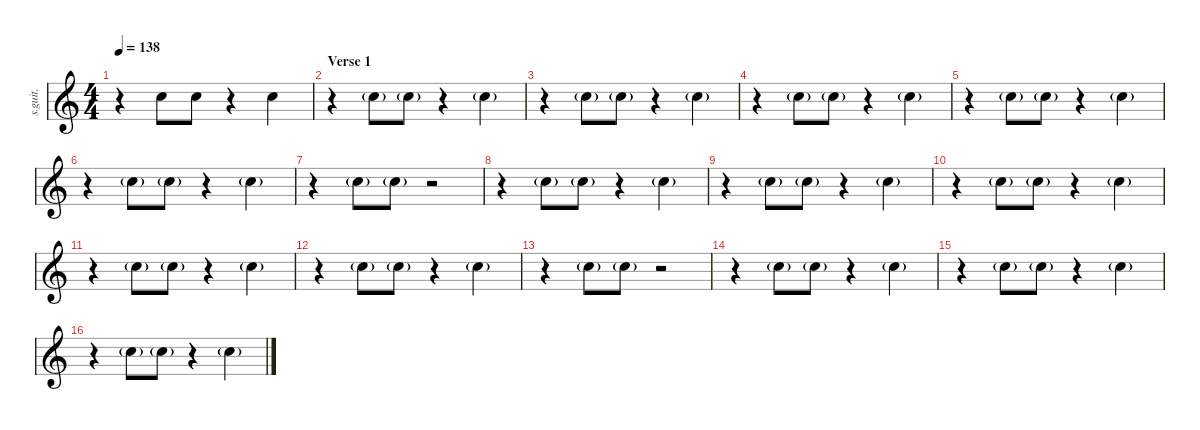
\defaultSystemsLayout 4
\hideDynamics
\bracketExtendMode nobrackets
\track ("Hand Claps" "s.guit.") {instrument percussion}
\staff {score}
\articulation defaults
\ts (4 4)
\tempo 138
\clef g2
\ks c
r.4{dy fff} "Hand Clap (hit)".8 "Hand Clap (hit)".8 r.4 "Hand Clap (hit)".4 |
\section ("" "Verse 1")
r.4 "Hand Clap (hit)"{g}.8 "Hand Clap (hit)"{g}.8 r.4 "Hand Clap (hit)"{g}.4 |
r.4 "Hand Clap (hit)"{g}.8 "Hand Clap (hit)"{g}.8 r.4 "Hand Clap (hit)"{g}.4 |
r.4 "Hand Clap (hit)"{g}.8 "Hand Clap (hit)"{g}.8 r.4 "Hand Clap (hit)"{g}.4 |
r.4 "Hand Clap (hit)"{g}.8 "Hand Clap (hit)"{g}.8 r.4 "Hand Clap (hit)"{g}.4 |
r.4 "Hand Clap (hit)"{g}.8 "Hand Clap (hit)"{g}.8 r.4 "Hand Clap (hit)"{g}.4 |
r.4 "Hand Clap (hit)"{g}.8 "Hand Clap (hit)"{g}.8 r.2 |
r.4 "Hand Clap (hit)"{g}.8 "Hand Clap (hit)"{g}.8 r.4 "Hand Clap (hit)"{g}.4 |
r.4 "Hand Clap (hit)"{g}.8 "Hand Clap (hit)"{g}.8 r.4 "Hand Clap (hit)"{g}.4 |
r.4 "Hand Clap (hit)"{g}.8 "Hand Clap (hit)"{g}.8 r.4 "Hand Clap (hit)"{g}.4 |
r.4 "Hand Clap (hit)"{g}.8 "Hand Clap (hit)"{g}.8 r.4 "Hand Clap (hit)"{g}.4 |
r.4 "Hand Clap (hit)"{g}.8 "Hand Clap (hit)"{g}.8 r.4 "Hand Clap (hit)"{g}.4 |
r.4 "Hand Clap (hit)"{g}.8 "Hand Clap (hit)"{g}.8 r.2 |
r.4 "Hand Clap (hit)"{g}.8 "Hand Clap (hit)"{g}.8 r.4 "Hand Clap (hit)"{g}.4 |
r.4 "Hand Clap (hit)"{g}.8 "Hand Clap (hit)"{g}.8 r.4 "Hand Clap (hit)"{g}.4 |
r.4 "Hand Clap (hit)"{g}.8 "Hand Clap (hit)"{g}.8 r.4 "Hand Clap (hit)"{g}.4
